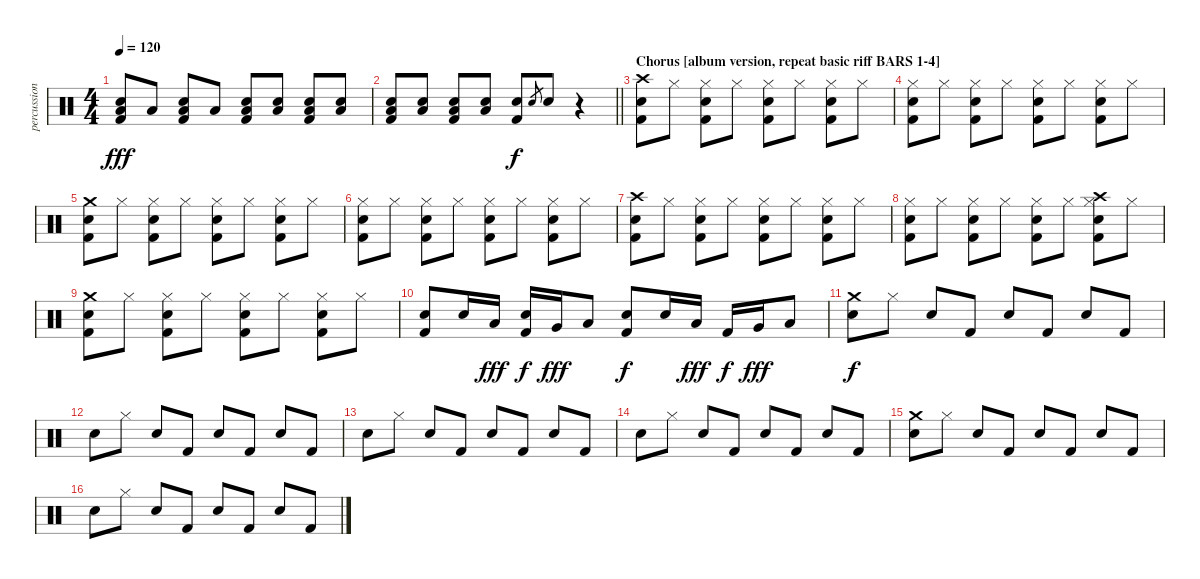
\track ("percussion" "percussion") {instrument percussion}
\staff {score}
\articulation defaults
\ts (4 4)
\tempo 120
\clef neutral
\ks c
("Low Floor Tom (hit)" "Snare (hit) 2" "Kick (hit) 2").8{dy fff} "Low Floor Tom (hit)".8 ("Low Floor Tom (hit)" "Snare (hit) 2" "Kick (hit) 2").8 "Low Floor Tom (hit)".8 ("Low Floor Tom (hit)" "Snare (hit) 2" "Kick (hit) 2").8 ("Low Floor Tom (hit)" "Snare (hit) 2").8 ("Low Floor Tom (hit)" "Snare (hit) 2" "Kick (hit) 2").8 ("Low Floor Tom (hit)" "Snare (hit) 2").8 |
\barLineRight lightlight
("Low Floor Tom (hit)" "Snare (hit) 2" "Kick (hit) 2").8 ("Low Floor Tom (hit)" "Snare (hit) 2").8 ("Low Floor Tom (hit)" "Snare (hit) 2" "Kick (hit) 2").8 ("Low Floor Tom (hit)" "Snare (hit) 2").8 ("Snare (hit) 2" "Kick (hit) 2").8{dy f} "Snare (hit) 2".8{gr} "Snare (hit) 2".8 r.4 |
\section ("" "Chorus [album version, repeat basic riff BARS 1-4]")
("Crash high (hit)" "Snare (hit) 2" "Kick (hit) 2").8 "Hi-Hat (closed)".8 ("Snare (hit) 2" "Hi-Hat (closed)" "Kick (hit) 2").8 "Hi-Hat (closed)".8 ("Snare (hit) 2" "Hi-Hat (closed)" "Kick (hit) 2").8 "Hi-Hat (closed)".8 ("Snare (hit) 2" "Hi-Hat (closed)" "Kick (hit) 2").8 "Hi-Hat (closed)".8 |
("Snare (hit) 2" "Hi-Hat (closed)" "Kick (hit) 2").8 "Hi-Hat (closed)".8 ("Snare (hit) 2" "Hi-Hat (closed)" "Kick (hit) 2").8 "Hi-Hat (closed)".8 ("Snare (hit) 2" "Hi-Hat (closed)" "Kick (hit) 2").8 "Hi-Hat (closed)".8 ("Snare (hit) 2" "Hi-Hat (closed)" "Kick (hit) 2").8 "Hi-Hat (closed)".8 |
("Crash medium (hit)" "Snare (hit) 2" "Kick (hit) 2").8 "Hi-Hat (closed)".8 ("Snare (hit) 2" "Hi-Hat (closed)" "Kick (hit) 2").8 "Hi-Hat (closed)".8 ("Snare (hit) 2" "Hi-Hat (closed)" "Kick (hit) 2").8 "Hi-Hat (closed)".8 ("Snare (hit) 2" "Hi-Hat (closed)" "Kick (hit) 2").8 "Hi-Hat (closed)".8 |
("Snare (hit) 2" "Hi-Hat (closed)" "Kick (hit) 2").8 "Hi-Hat (closed)".8 ("Snare (hit) 2" "Hi-Hat (closed)" "Kick (hit) 2").8 "Hi-Hat (closed)".8 ("Snare (hit) 2" "Hi-Hat (closed)" "Kick (hit) 2").8 "Hi-Hat (closed)".8 ("Snare (hit) 2" "Hi-Hat (closed)" "Kick (hit) 2").8 "Hi-Hat (closed)".8 |
("Crash high (hit)" "Snare (hit) 2" "Kick (hit) 2").8 "Hi-Hat (closed)".8 ("Snare (hit) 2" "Hi-Hat (closed)" "Kick (hit) 2").8 "Hi-Hat (closed)".8 ("Snare (hit) 2" "Hi-Hat (closed)" "Kick (hit) 2").8 "Hi-Hat (closed)".8 ("Snare (hit) 2" "Hi-Hat (closed)" "Kick (hit) 2").8 "Hi-Hat (closed)".8 |
("Snare (hit) 2" "Hi-Hat (closed)" "Kick (hit) 2").8 "Hi-Hat (closed)".8 ("Snare (hit) 2" "Hi-Hat (closed)" "Kick (hit) 2").8 "Hi-Hat (closed)".8 ("Snare (hit) 2" "Hi-Hat (closed)" "Kick (hit) 2").8 "Hi-Hat (closed)".8 ("Crash high (hit)" "Snare (hit) 2" "Hi-Hat (closed)" "Kick (hit) 2").8 "Hi-Hat (closed)".8 |
("Crash medium (hit)" "Snare (hit) 2" "Kick (hit) 2").8 "Hi-Hat (closed)".8 ("Snare (hit) 2" "Hi-Hat (closed)" "Kick (hit) 2").8 "Hi-Hat (closed)".8 ("Snare (hit) 2" "Hi-Hat (closed)" "Kick (hit) 2").8 "Hi-Hat (closed)".8 ("Snare (hit) 2" "Hi-Hat (closed)" "Kick (hit) 2").8 "Hi-Hat (closed)".8 |
("Snare (hit) 2" "Kick (hit) 2").8 "Snare (hit) 2".16 "Low Tom (hit)".16{dy fff} ("Snare (hit) 2" "Kick (hit) 2").16{dy f} "Very Low Tom (hit)".16{dy fff} "Low Tom (hit)".8 ("Snare (hit) 2" "Kick (hit) 2").8{dy f} "Snare (hit) 2".16 "Low Tom (hit)".16{dy fff} "Kick (hit) 2".16{dy f} "Very Low Tom (hit)".16{dy fff} "Low Tom (hit)".8 |
("Crash medium (hit)" "Snare (hit) 2").8{dy f} "Hi-Hat (closed)".8 "Snare (hit) 2".8 "Kick (hit) 2".8 "Snare (hit) 2".8 "Kick (hit) 2".8 "Snare (hit) 2".8 "Kick (hit) 2".8 |
"Snare (hit) 2".8 "Hi-Hat (closed)".8 "Snare (hit) 2".8 "Kick (hit) 2".8 "Snare (hit) 2".8 "Kick (hit) 2".8 "Snare (hit) 2".8 "Kick (hit) 2".8 |
"Snare (hit) 2".8 "Hi-Hat (closed)".8 "Snare (hit) 2".8 "Kick (hit) 2".8 "Snare (hit) 2".8 "Kick (hit) 2".8 "Snare (hit) 2".8 "Kick (hit) 2".8 |
"Snare (hit) 2".8 "Hi-Hat (closed)".8 "Snare (hit) 2".8 "Kick (hit) 2".8 "Snare (hit) 2".8 "Kick (hit) 2".8 "Snare (hit) 2".8 "Kick (hit) 2".8 |
("Crash medium (hit)" "Snare (hit) 2").8 "Hi-Hat (closed)".8 "Snare (hit) 2".8 "Kick (hit) 2".8 "Snare (hit) 2".8 "Kick (hit) 2".8 "Snare (hit) 2".8 "Kick (hit) 2".8 |
"Snare (hit) 2".8 "Hi-Hat (closed)".8 "Snare (hit) 2".8 "Kick (hit) 2".8 "Snare (hit) 2".8 "Kick (hit) 2".8 "Snare (hit) 2".8 "Kick (hit) 2".8
